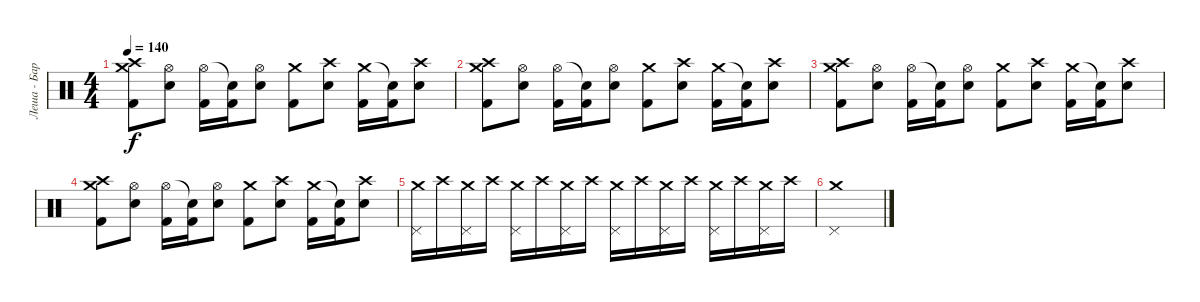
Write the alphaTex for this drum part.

\track ("Леша - Барабаны" "Леша - Бар") {instrument percussion}
\staff {score}
\articulation defaults
\ts (4 4)
\tempo 140
\clef neutral
\ks c
("Crash medium (hit)" "Crash high (hit)" "Kick (hit) 2").8{dy f} ("Hi-Hat (open)" "Snare (hit) 2").8 ("Hi-Hat (open)" "Kick (hit) 2").16 ("Snare (hit)"{t} "Kick (hit) 2").16 ("Hi-Hat (open)" "Snare (hit) 2").8 ("Crash medium (hit)" "Kick (hit) 2").8 ("Crash high (hit)" "Snare (hit) 2").8 ("Crash medium (hit)" "Kick (hit) 2").16 ("Snare (hit)"{t} "Kick (hit) 2").16 ("Crash high (hit)" "Snare (hit) 2").8 |
("Crash medium (hit)" "Crash high (hit)" "Kick (hit) 2").8 ("Hi-Hat (open)" "Snare (hit) 2").8 ("Hi-Hat (open)" "Kick (hit) 2").16 ("Snare (hit)"{t} "Kick (hit) 2").16 ("Hi-Hat (open)" "Snare (hit) 2").8 ("Crash medium (hit)" "Kick (hit) 2").8 ("Crash high (hit)" "Snare (hit) 2").8 ("Crash medium (hit)" "Kick (hit) 2").16 ("Snare (hit)"{t} "Kick (hit) 2").16 ("Crash high (hit)" "Snare (hit) 2").8 |
("Crash medium (hit)" "Crash high (hit)" "Kick (hit) 2").8 ("Hi-Hat (open)" "Snare (hit) 2").8 ("Hi-Hat (open)" "Kick (hit) 2").16 ("Snare (hit)"{t} "Kick (hit) 2").16 ("Hi-Hat (open)" "Snare (hit) 2").8 ("Crash medium (hit)" "Kick (hit) 2").8 ("Crash high (hit)" "Snare (hit) 2").8 ("Crash medium (hit)" "Kick (hit) 2").16 ("Snare (hit)"{t} "Kick (hit) 2").16 ("Crash high (hit)" "Snare (hit) 2").8 |
("Crash medium (hit)" "Crash high (hit)" "Kick (hit) 2").8 ("Hi-Hat (open)" "Snare (hit) 2").8 ("Hi-Hat (open)" "Kick (hit) 2").16 ("Snare (hit)"{t} "Kick (hit) 2").16 ("Hi-Hat (open)" "Snare (hit) 2").8 ("Crash medium (hit)" "Kick (hit) 2").8 ("Crash high (hit)" "Snare (hit) 2").8 ("Crash medium (hit)" "Kick (hit) 2").16 ("Snare (hit)"{t} "Kick (hit) 2").16 ("Crash high (hit)" "Snare (hit) 2").8 |
("Crash medium (hit)" "Pedal Hi-Hat (hit)").16 "Crash high (hit)".16 ("Crash medium (hit)" "Pedal Hi-Hat (hit)").16 "Crash high (hit)".16 ("Crash medium (hit)" "Pedal Hi-Hat (hit)").16 "Crash high (hit)".16 ("Crash medium (hit)" "Pedal Hi-Hat (hit)").16 "Crash high (hit)".16 ("Crash medium (hit)" "Pedal Hi-Hat (hit)").16 "Crash high (hit)".16 ("Crash medium (hit)" "Pedal Hi-Hat (hit)").16 "Crash high (hit)".16 ("Crash medium (hit)" "Pedal Hi-Hat (hit)").16 "Crash high (hit)".16 ("Crash medium (hit)" "Pedal Hi-Hat (hit)").16 "Crash high (hit)".16 |
("Crash medium (hit)" "Pedal Hi-Hat (hit)").1
